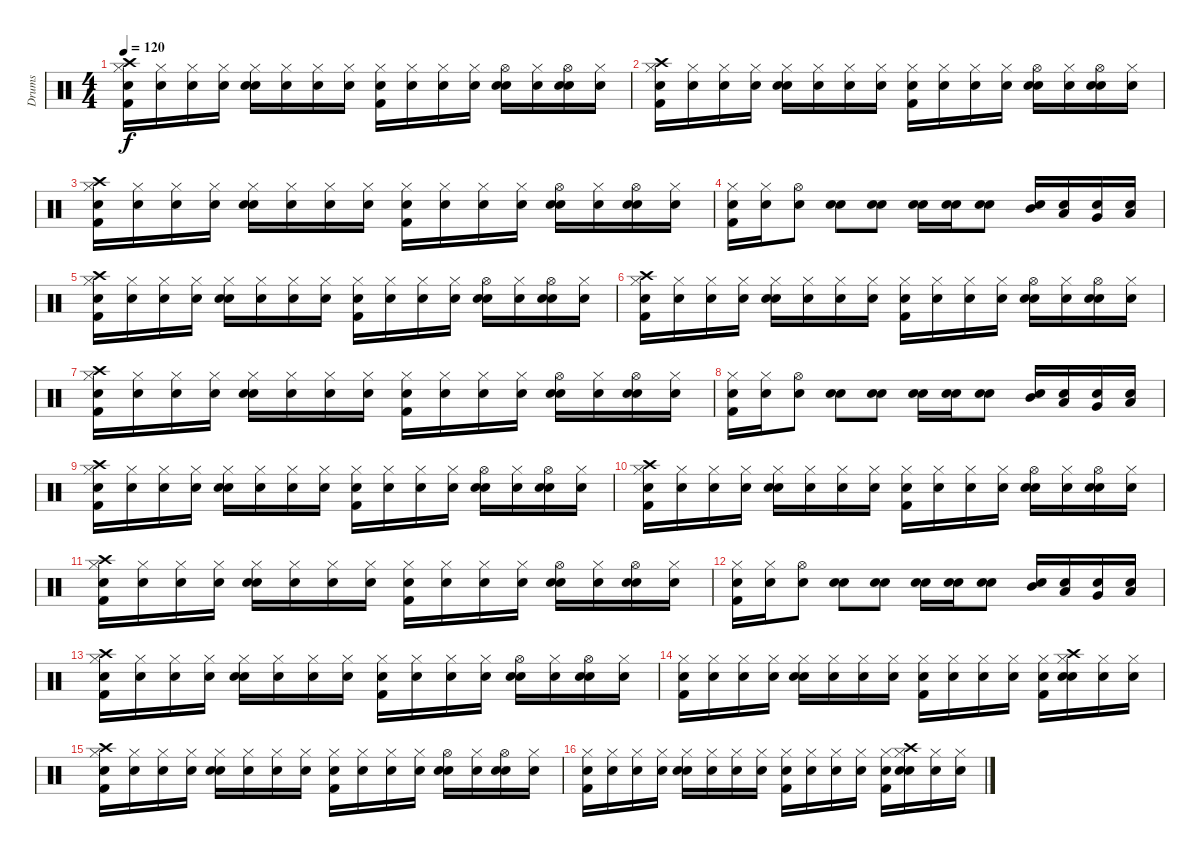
\track ("Drums" "Drums") {instrument percussion}
\staff {score}
\articulation defaults
\ts (4 4)
\tempo 120
\clef neutral
\ks c
("Snare (hit)" "Kick (hit) 2" "Hi-Hat (closed)" "Crash high (hit)").16{dy f} ("Snare (hit)" "Hi-Hat (closed)").16 ("Snare (hit)" "Hi-Hat (closed)").16 ("Snare (hit)" "Hi-Hat (closed)").16 ("Snare (hit)" "Snare (hit) 2" "Hi-Hat (closed)").16 ("Snare (hit)" "Hi-Hat (closed)").16 ("Snare (hit)" "Hi-Hat (closed)").16 ("Snare (hit)" "Hi-Hat (closed)").16 ("Snare (hit)" "Kick (hit) 2" "Hi-Hat (closed)").16 ("Snare (hit)" "Hi-Hat (closed)").16 ("Snare (hit)" "Hi-Hat (closed)").16 ("Snare (hit)" "Hi-Hat (closed)").16 ("Snare (hit)" "Snare (hit) 2" "Hi-Hat (open)").16 ("Snare (hit)" "Hi-Hat (closed)").16 ("Snare (hit)" "Snare (hit) 2" "Hi-Hat (open)").16 ("Snare (hit)" "Hi-Hat (closed)").16 |
("Snare (hit)" "Kick (hit) 2" "Hi-Hat (closed)" "Crash high (hit)").16 ("Snare (hit)" "Hi-Hat (closed)").16 ("Snare (hit)" "Hi-Hat (closed)").16 ("Snare (hit)" "Hi-Hat (closed)").16 ("Snare (hit)" "Snare (hit) 2" "Hi-Hat (closed)").16 ("Snare (hit)" "Hi-Hat (closed)").16 ("Snare (hit)" "Hi-Hat (closed)").16 ("Snare (hit)" "Hi-Hat (closed)").16 ("Snare (hit)" "Kick (hit) 2" "Hi-Hat (closed)").16 ("Snare (hit)" "Hi-Hat (closed)").16 ("Snare (hit)" "Hi-Hat (closed)").16 ("Snare (hit)" "Hi-Hat (closed)").16 ("Snare (hit)" "Snare (hit) 2" "Hi-Hat (open)").16 ("Snare (hit)" "Hi-Hat (closed)").16 ("Snare (hit)" "Snare (hit) 2" "Hi-Hat (open)").16 ("Snare (hit)" "Hi-Hat (closed)").16 |
("Snare (hit)" "Kick (hit) 2" "Hi-Hat (closed)" "Crash high (hit)").16 ("Snare (hit)" "Hi-Hat (closed)").16 ("Snare (hit)" "Hi-Hat (closed)").16 ("Snare (hit)" "Hi-Hat (closed)").16 ("Snare (hit)" "Snare (hit) 2" "Hi-Hat (closed)").16 ("Snare (hit)" "Hi-Hat (closed)").16 ("Snare (hit)" "Hi-Hat (closed)").16 ("Snare (hit)" "Hi-Hat (closed)").16 ("Snare (hit)" "Kick (hit) 2" "Hi-Hat (closed)").16 ("Snare (hit)" "Hi-Hat (closed)").16 ("Snare (hit)" "Hi-Hat (closed)").16 ("Snare (hit)" "Hi-Hat (closed)").16 ("Snare (hit)" "Snare (hit) 2" "Hi-Hat (open)").16 ("Snare (hit)" "Hi-Hat (closed)").16 ("Snare (hit)" "Snare (hit) 2" "Hi-Hat (open)").16 ("Snare (hit)" "Hi-Hat (closed)").16 |
("Snare (hit)" "Kick (hit) 2" "Hi-Hat (closed)").16 ("Snare (hit)" "Hi-Hat (closed)").16 ("Snare (hit)" "Hi-Hat (open)").8 ("Snare (hit)" "Snare (hit) 2").8 ("Snare (hit)" "Snare (hit) 2").8 ("Snare (hit)" "Snare (hit) 2").16 ("Snare (hit)" "Snare (hit) 2").16 ("Snare (hit)" "Snare (hit) 2").8 ("Snare (hit)" "Mid Tom (hit)").16 ("Snare (hit)" "Low Tom (hit)").16 ("Snare (hit)" "Very Low Tom (hit)").16 ("Snare (hit)" "Low Floor Tom (hit)").16 |
("Snare (hit)" "Kick (hit) 2" "Hi-Hat (closed)" "Crash high (hit)").16 ("Snare (hit)" "Hi-Hat (closed)").16 ("Snare (hit)" "Hi-Hat (closed)").16 ("Snare (hit)" "Hi-Hat (closed)").16 ("Snare (hit)" "Snare (hit) 2" "Hi-Hat (closed)").16 ("Snare (hit)" "Hi-Hat (closed)").16 ("Snare (hit)" "Hi-Hat (closed)").16 ("Snare (hit)" "Hi-Hat (closed)").16 ("Snare (hit)" "Kick (hit) 2" "Hi-Hat (closed)").16 ("Snare (hit)" "Hi-Hat (closed)").16 ("Snare (hit)" "Hi-Hat (closed)").16 ("Snare (hit)" "Hi-Hat (closed)").16 ("Snare (hit)" "Snare (hit) 2" "Hi-Hat (open)").16 ("Snare (hit)" "Hi-Hat (closed)").16 ("Snare (hit)" "Snare (hit) 2" "Hi-Hat (open)").16 ("Snare (hit)" "Hi-Hat (closed)").16 |
("Snare (hit)" "Kick (hit) 2" "Hi-Hat (closed)" "Crash high (hit)").16 ("Snare (hit)" "Hi-Hat (closed)").16 ("Snare (hit)" "Hi-Hat (closed)").16 ("Snare (hit)" "Hi-Hat (closed)").16 ("Snare (hit)" "Snare (hit) 2" "Hi-Hat (closed)").16 ("Snare (hit)" "Hi-Hat (closed)").16 ("Snare (hit)" "Hi-Hat (closed)").16 ("Snare (hit)" "Hi-Hat (closed)").16 ("Snare (hit)" "Kick (hit) 2" "Hi-Hat (closed)").16 ("Snare (hit)" "Hi-Hat (closed)").16 ("Snare (hit)" "Hi-Hat (closed)").16 ("Snare (hit)" "Hi-Hat (closed)").16 ("Snare (hit)" "Snare (hit) 2" "Hi-Hat (open)").16 ("Snare (hit)" "Hi-Hat (closed)").16 ("Snare (hit)" "Snare (hit) 2" "Hi-Hat (open)").16 ("Snare (hit)" "Hi-Hat (closed)").16 |
("Snare (hit)" "Kick (hit) 2" "Hi-Hat (closed)" "Crash high (hit)").16 ("Snare (hit)" "Hi-Hat (closed)").16 ("Snare (hit)" "Hi-Hat (closed)").16 ("Snare (hit)" "Hi-Hat (closed)").16 ("Snare (hit)" "Snare (hit) 2" "Hi-Hat (closed)").16 ("Snare (hit)" "Hi-Hat (closed)").16 ("Snare (hit)" "Hi-Hat (closed)").16 ("Snare (hit)" "Hi-Hat (closed)").16 ("Snare (hit)" "Kick (hit) 2" "Hi-Hat (closed)").16 ("Snare (hit)" "Hi-Hat (closed)").16 ("Snare (hit)" "Hi-Hat (closed)").16 ("Snare (hit)" "Hi-Hat (closed)").16 ("Snare (hit)" "Snare (hit) 2" "Hi-Hat (open)").16 ("Snare (hit)" "Hi-Hat (closed)").16 ("Snare (hit)" "Snare (hit) 2" "Hi-Hat (open)").16 ("Snare (hit)" "Hi-Hat (closed)").16 |
("Snare (hit)" "Kick (hit) 2" "Hi-Hat (closed)").16 ("Snare (hit)" "Hi-Hat (closed)").16 ("Snare (hit)" "Hi-Hat (open)").8 ("Snare (hit)" "Snare (hit) 2").8 ("Snare (hit)" "Snare (hit) 2").8 ("Snare (hit)" "Snare (hit) 2").16 ("Snare (hit)" "Snare (hit) 2").16 ("Snare (hit)" "Snare (hit) 2").8 ("Snare (hit)" "Mid Tom (hit)").16 ("Snare (hit)" "Low Tom (hit)").16 ("Snare (hit)" "Very Low Tom (hit)").16 ("Snare (hit)" "Low Floor Tom (hit)").16 |
("Snare (hit)" "Kick (hit) 2" "Hi-Hat (closed)" "Crash high (hit)").16 ("Snare (hit)" "Hi-Hat (closed)").16 ("Snare (hit)" "Hi-Hat (closed)").16 ("Snare (hit)" "Hi-Hat (closed)").16 ("Snare (hit)" "Snare (hit) 2" "Hi-Hat (closed)").16 ("Snare (hit)" "Hi-Hat (closed)").16 ("Snare (hit)" "Hi-Hat (closed)").16 ("Snare (hit)" "Hi-Hat (closed)").16 ("Snare (hit)" "Kick (hit) 2" "Hi-Hat (closed)").16 ("Snare (hit)" "Hi-Hat (closed)").16 ("Snare (hit)" "Hi-Hat (closed)").16 ("Snare (hit)" "Hi-Hat (closed)").16 ("Snare (hit)" "Snare (hit) 2" "Hi-Hat (open)").16 ("Snare (hit)" "Hi-Hat (closed)").16 ("Snare (hit)" "Snare (hit) 2" "Hi-Hat (open)").16 ("Snare (hit)" "Hi-Hat (closed)").16 |
("Snare (hit)" "Kick (hit) 2" "Hi-Hat (closed)" "Crash high (hit)").16 ("Snare (hit)" "Hi-Hat (closed)").16 ("Snare (hit)" "Hi-Hat (closed)").16 ("Snare (hit)" "Hi-Hat (closed)").16 ("Snare (hit)" "Snare (hit) 2" "Hi-Hat (closed)").16 ("Snare (hit)" "Hi-Hat (closed)").16 ("Snare (hit)" "Hi-Hat (closed)").16 ("Snare (hit)" "Hi-Hat (closed)").16 ("Snare (hit)" "Kick (hit) 2" "Hi-Hat (closed)").16 ("Snare (hit)" "Hi-Hat (closed)").16 ("Snare (hit)" "Hi-Hat (closed)").16 ("Snare (hit)" "Hi-Hat (closed)").16 ("Snare (hit)" "Snare (hit) 2" "Hi-Hat (open)").16 ("Snare (hit)" "Hi-Hat (closed)").16 ("Snare (hit)" "Snare (hit) 2" "Hi-Hat (open)").16 ("Snare (hit)" "Hi-Hat (closed)").16 |
("Snare (hit)" "Kick (hit) 2" "Hi-Hat (closed)" "Crash high (hit)").16 ("Snare (hit)" "Hi-Hat (closed)").16 ("Snare (hit)" "Hi-Hat (closed)").16 ("Snare (hit)" "Hi-Hat (closed)").16 ("Snare (hit)" "Snare (hit) 2" "Hi-Hat (closed)").16 ("Snare (hit)" "Hi-Hat (closed)").16 ("Snare (hit)" "Hi-Hat (closed)").16 ("Snare (hit)" "Hi-Hat (closed)").16 ("Snare (hit)" "Kick (hit) 2" "Hi-Hat (closed)").16 ("Snare (hit)" "Hi-Hat (closed)").16 ("Snare (hit)" "Hi-Hat (closed)").16 ("Snare (hit)" "Hi-Hat (closed)").16 ("Snare (hit)" "Snare (hit) 2" "Hi-Hat (open)").16 ("Snare (hit)" "Hi-Hat (closed)").16 ("Snare (hit)" "Snare (hit) 2" "Hi-Hat (open)").16 ("Snare (hit)" "Hi-Hat (closed)").16 |
("Snare (hit)" "Kick (hit) 2" "Hi-Hat (closed)").16 ("Snare (hit)" "Hi-Hat (closed)").16 ("Snare (hit)" "Hi-Hat (open)").8 ("Snare (hit)" "Snare (hit) 2").8 ("Snare (hit)" "Snare (hit) 2").8 ("Snare (hit)" "Snare (hit) 2").16 ("Snare (hit)" "Snare (hit) 2").16 ("Snare (hit)" "Snare (hit) 2").8 ("Snare (hit)" "Mid Tom (hit)").16 ("Snare (hit)" "Low Tom (hit)").16 ("Snare (hit)" "Very Low Tom (hit)").16 ("Snare (hit)" "Low Floor Tom (hit)").16 |
("Snare (hit)" "Kick (hit) 2" "Hi-Hat (closed)" "Crash high (hit)").16 ("Snare (hit)" "Hi-Hat (closed)").16 ("Snare (hit)" "Hi-Hat (closed)").16 ("Snare (hit)" "Hi-Hat (closed)").16 ("Snare (hit)" "Snare (hit) 2" "Hi-Hat (closed)").16 ("Snare (hit)" "Hi-Hat (closed)").16 ("Snare (hit)" "Hi-Hat (closed)").16 ("Snare (hit)" "Hi-Hat (closed)").16 ("Snare (hit)" "Kick (hit) 2" "Hi-Hat (closed)").16 ("Snare (hit)" "Hi-Hat (closed)").16 ("Snare (hit)" "Hi-Hat (closed)").16 ("Snare (hit)" "Hi-Hat (closed)").16 ("Snare (hit)" "Snare (hit) 2" "Hi-Hat (open)").16 ("Snare (hit)" "Hi-Hat (closed)").16 ("Snare (hit)" "Snare (hit) 2" "Hi-Hat (open)").16 ("Snare (hit)" "Hi-Hat (closed)").16 |
("Snare (hit)" "Kick (hit) 2" "Hi-Hat (closed)").16 ("Snare (hit)" "Hi-Hat (closed)").16 ("Snare (hit)" "Hi-Hat (closed)").16 ("Snare (hit)" "Hi-Hat (closed)").16 ("Snare (hit)" "Snare (hit) 2" "Hi-Hat (closed)").16 ("Snare (hit)" "Hi-Hat (closed)").16 ("Snare (hit)" "Hi-Hat (closed)").16 ("Snare (hit)" "Hi-Hat (closed)").16 ("Snare (hit)" "Kick (hit) 2" "Hi-Hat (closed)").16 ("Snare (hit)" "Hi-Hat (closed)").16 ("Snare (hit)" "Hi-Hat (closed)").16 ("Snare (hit)" "Hi-Hat (closed)").16 ("Snare (hit)" "Kick (hit) 2" "Hi-Hat (closed)").16 ("Snare (hit)" "Snare (hit) 2" "Hi-Hat (closed)" "Crash high (hit)").16 ("Snare (hit)" "Hi-Hat (closed)").16 ("Snare (hit)" "Hi-Hat (closed)").16 |
("Snare (hit)" "Kick (hit) 2" "Hi-Hat (closed)" "Crash high (hit)").16 ("Snare (hit)" "Hi-Hat (closed)").16 ("Snare (hit)" "Hi-Hat (closed)").16 ("Snare (hit)" "Hi-Hat (closed)").16 ("Snare (hit)" "Snare (hit) 2" "Hi-Hat (closed)").16 ("Snare (hit)" "Hi-Hat (closed)").16 ("Snare (hit)" "Hi-Hat (closed)").16 ("Snare (hit)" "Hi-Hat (closed)").16 ("Snare (hit)" "Kick (hit) 2" "Hi-Hat (closed)").16 ("Snare (hit)" "Hi-Hat (closed)").16 ("Snare (hit)" "Hi-Hat (closed)").16 ("Snare (hit)" "Hi-Hat (closed)").16 ("Snare (hit)" "Snare (hit) 2" "Hi-Hat (open)").16 ("Snare (hit)" "Hi-Hat (closed)").16 ("Snare (hit)" "Snare (hit) 2" "Hi-Hat (open)").16 ("Snare (hit)" "Hi-Hat (closed)").16 |
("Snare (hit)" "Kick (hit) 2" "Hi-Hat (closed)").16 ("Snare (hit)" "Hi-Hat (closed)").16 ("Snare (hit)" "Hi-Hat (closed)").16 ("Snare (hit)" "Hi-Hat (closed)").16 ("Snare (hit)" "Snare (hit) 2" "Hi-Hat (closed)").16 ("Snare (hit)" "Hi-Hat (closed)").16 ("Snare (hit)" "Hi-Hat (closed)").16 ("Snare (hit)" "Hi-Hat (closed)").16 ("Snare (hit)" "Kick (hit) 2" "Hi-Hat (closed)").16 ("Snare (hit)" "Hi-Hat (closed)").16 ("Snare (hit)" "Hi-Hat (closed)").16 ("Snare (hit)" "Hi-Hat (closed)").16 ("Snare (hit)" "Kick (hit) 2" "Hi-Hat (closed)").16 ("Snare (hit)" "Snare (hit) 2" "Hi-Hat (closed)" "Crash high (hit)").16 ("Snare (hit)" "Hi-Hat (closed)").16 ("Snare (hit)" "Hi-Hat (closed)").16
